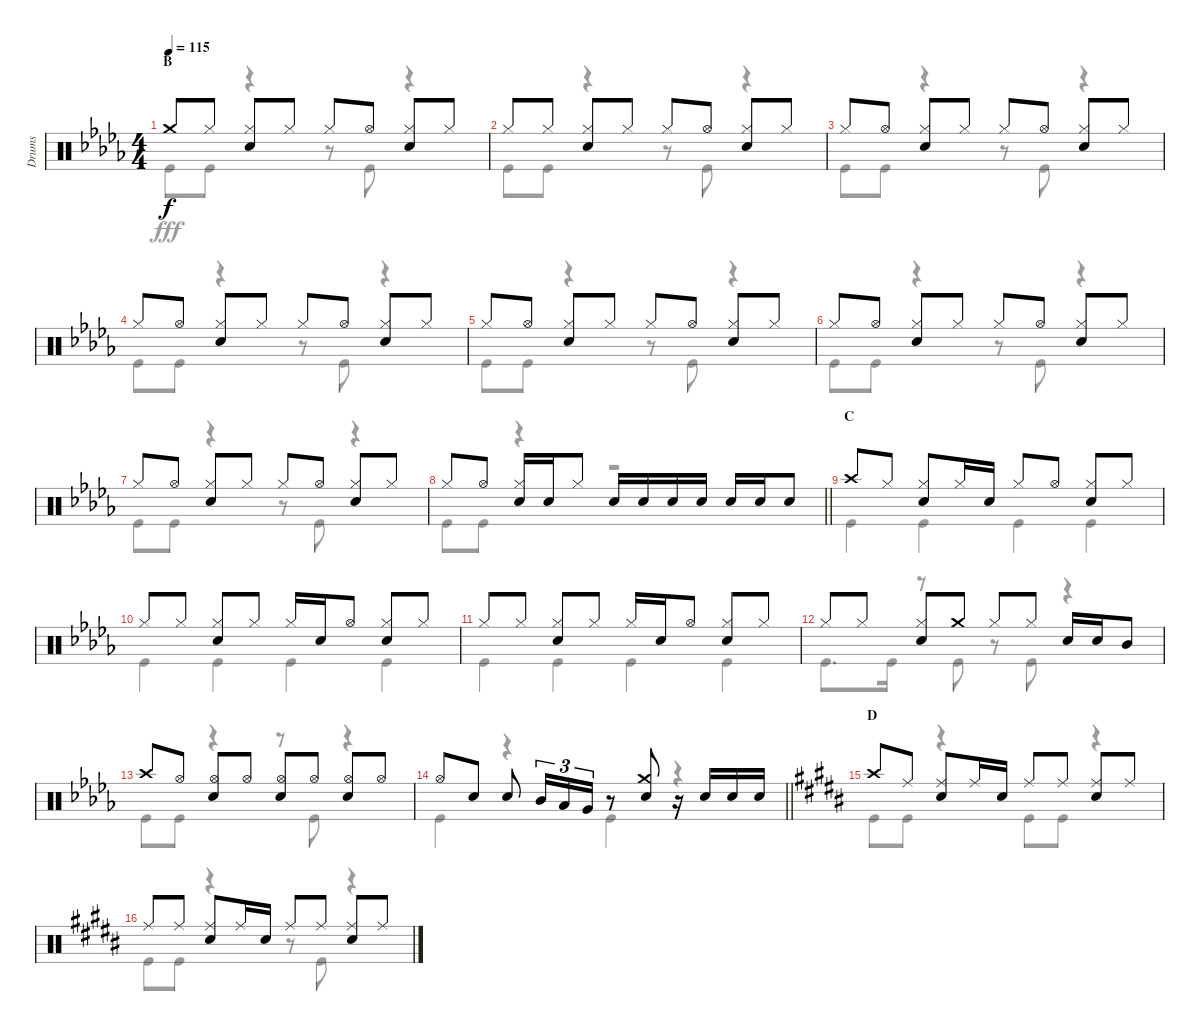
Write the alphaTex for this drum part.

\track ("Drums" "Drums") {instrument percussion}
\staff {score}
\articulation defaults
\voice
\ts (4 4)
\section ("" "B")
\tempo 115
\clef neutral
\ks db "Crash medium (hit)".8{dy f} "Hi-Hat (closed)".8
("Hi-Hat (closed)" "Snare (hit) 2").8 "Hi-Hat (closed)".8 "Hi-Hat (closed)".8 "Hi-Hat (open)".8 ("Hi-Hat (closed)" "Snare (hit) 2").8 "Hi-Hat (closed)".8 |
"Hi-Hat (closed)".8 "Hi-Hat (closed)".8 ("Hi-Hat (closed)" "Snare (hit) 2").8 "Hi-Hat (closed)".8 "Hi-Hat (closed)".8 "Hi-Hat (open)".8 ("Hi-Hat (closed)" "Snare (hit) 2").8 "Hi-Hat (closed)".8 |
"Hi-Hat (closed)".8 "Hi-Hat (open)".8 ("Hi-Hat (closed)" "Snare (hit) 2").8 "Hi-Hat (closed)".8 "Hi-Hat (closed)".8 "Hi-Hat (open)".8 ("Hi-Hat (closed)" "Snare (hit) 2").8 "Hi-Hat (closed)".8 |
"Hi-Hat (closed)".8 "Hi-Hat (open)".8 ("Hi-Hat (closed)" "Snare (hit) 2").8 "Hi-Hat (closed)".8 "Hi-Hat (closed)".8 "Hi-Hat (open)".8 ("Hi-Hat (closed)" "Snare (hit) 2").8 "Hi-Hat (closed)".8 |
"Hi-Hat (closed)".8 "Hi-Hat (open)".8 ("Hi-Hat (closed)" "Snare (hit) 2").8 "Hi-Hat (closed)".8 "Hi-Hat (closed)".8 "Hi-Hat (open)".8 ("Hi-Hat (closed)" "Snare (hit) 2").8 "Hi-Hat (closed)".8 |
"Hi-Hat (closed)".8 "Hi-Hat (open)".8 ("Hi-Hat (closed)" "Snare (hit) 2").8 "Hi-Hat (closed)".8 "Hi-Hat (closed)".8 "Hi-Hat (open)".8 ("Hi-Hat (closed)" "Snare (hit) 2").8 "Hi-Hat (closed)".8 |
"Hi-Hat (closed)".8 "Hi-Hat (open)".8 ("Hi-Hat (closed)" "Snare (hit) 2").8 "Hi-Hat (closed)".8 "Hi-Hat (closed)".8 "Hi-Hat (open)".8 ("Hi-Hat (closed)" "Snare (hit) 2").8 "Hi-Hat (closed)".8 |
\barLineRight lightlight "Hi-Hat (closed)".8 "Hi-Hat (open)".8
("Hi-Hat (closed)" "Snare (hit) 2").16 "Snare (hit) 2".16 "Hi-Hat (closed)".8 "Snare (hit) 2".16 "Snare (hit) 2".16 "Snare (hit) 2".16 "Snare (hit) 2".16 "Snare (hit) 2".16 "Snare (hit) 2".16 "Snare (hit) 2".8 |
\section ("" "C")
"Crash high (hit)".8 "Hi-Hat (closed)".8 ("Hi-Hat (closed)" "Snare (hit) 2").8 "Hi-Hat (closed)".16 "Snare (hit) 2".16 "Hi-Hat (closed)".8 "Hi-Hat (open)".8 ("Hi-Hat (closed)" "Snare (hit) 2").8 "Hi-Hat (closed)".8 |
"Hi-Hat (closed)".8 "Hi-Hat (closed)".8 ("Hi-Hat (closed)" "Snare (hit) 2").8 "Hi-Hat (closed)".8 "Hi-Hat (closed)".16 "Snare (hit) 2".16 "Hi-Hat (open)".8 ("Hi-Hat (closed)" "Snare (hit) 2").8 "Hi-Hat (closed)".8 |
"Hi-Hat (closed)".8 "Hi-Hat (closed)".8 ("Hi-Hat (closed)" "Snare (hit) 2").8 "Hi-Hat (closed)".8 "Hi-Hat (closed)".16 "Snare (hit) 2".16 "Hi-Hat (open)".8 ("Hi-Hat (closed)" "Snare (hit) 2").8 "Hi-Hat (closed)".8 |
"Hi-Hat (closed)".8 "Hi-Hat (closed)".8 ("Hi-Hat (closed)" "Snare (hit) 2").8 "Crash medium (hit)".8 "Hi-Hat (closed)".8 "Hi-Hat (closed)".8 "Snare (hit) 2".16 "Snare (hit) 2".16 "Mid Tom (hit)".8 |
"Crash high (hit)".8 "Hi-Hat (open)".8 ("Hi-Hat (open)" "Snare (hit) 2").8 "Hi-Hat (open)".8 ("Hi-Hat (open)" "Snare (hit) 2").8 "Hi-Hat (open)".8 ("Hi-Hat (open)" "Snare (hit) 2").8 "Hi-Hat (open)".8 |
\barLineRight lightlight "Hi-Hat (open)".8 "Snare (hit) 2".8 "Snare (hit) 2".8 "Mid Tom (hit)".16{tu (3 2)} "Low Tom (hit)".16{tu (3 2)} "Very Low Tom (hit)".16{tu (3 2)}
r.8 ("Crash medium (hit)" "Snare (hit) 2").8 r.16 "Snare (hit) 2".16 "Snare (hit) 2".16 "Snare (hit) 2".16 |
\section ("" "D")
\ks b "Crash high (hit)".8 "Ride (middle)".8
("Ride (middle)" "Snare (hit) 2").8 "Ride (middle)".16 "Snare (hit) 2".16 "Ride (middle)".8 "Ride (middle)".8 ("Ride (middle)" "Snare (hit) 2").8 "Ride (middle)".8 |
"Ride (middle)".8 "Ride (middle)".8 ("Ride (middle)" "Snare (hit) 2").8 "Ride (middle)".16 "Snare (hit) 2".16 "Ride (middle)".8 "Ride (middle)".8 ("Ride (middle)" "Snare (hit) 2").8 "Ride (middle)".8
\voice
\clef neutral
\ottava regular
\simile none
\ks db "Kick (hit)".8{dy fff} "Kick (hit)".8
r.4 r.8 "Kick (hit)".8 r.4 |
"Kick (hit)".8 "Kick (hit)".8 r.4 r.8 "Kick (hit)".8 r.4 |
"Kick (hit)".8 "Kick (hit)".8 r.4 r.8 "Kick (hit)".8 r.4 |
"Kick (hit)".8 "Kick (hit)".8 r.4 r.8 "Kick (hit)".8 r.4 |
"Kick (hit)".8 "Kick (hit)".8 r.4 r.8 "Kick (hit)".8 r.4 |
"Kick (hit)".8 "Kick (hit)".8 r.4 r.8 "Kick (hit)".8 r.4 |
"Kick (hit)".8 "Kick (hit)".8 r.4 r.8 "Kick (hit)".8 r.4 |
\barLineRight lightlight "Kick (hit)".8 "Kick (hit)".8
r.4 r.2 |
"Kick (hit)".4 "Kick (hit)".4 "Kick (hit)".4 "Kick (hit)".4 |
"Kick (hit)".4 "Kick (hit)".4 "Kick (hit)".4 "Kick (hit)".4 |
"Kick (hit)".4 "Kick (hit)".4 "Kick (hit)".4 "Kick (hit)".4 |
"Kick (hit)".8{d} "Kick (hit)".16 r.8 "Kick (hit)".8 r.8 "Kick (hit)".8 r.4 |
"Kick (hit)".8 "Kick (hit)".8 r.4 r.8 "Kick (hit)".8 r.4 |
\barLineRight lightlight "Kick (hit)".4
r.4 "Kick (hit)".4 r.4 |
\ks b "Kick (hit)".8 "Kick (hit)".8
r.4 "Kick (hit)".8 "Kick (hit)".8 r.4 |
"Kick (hit)".8 "Kick (hit)".8 r.4 r.8 "Kick (hit)".8 r.4
